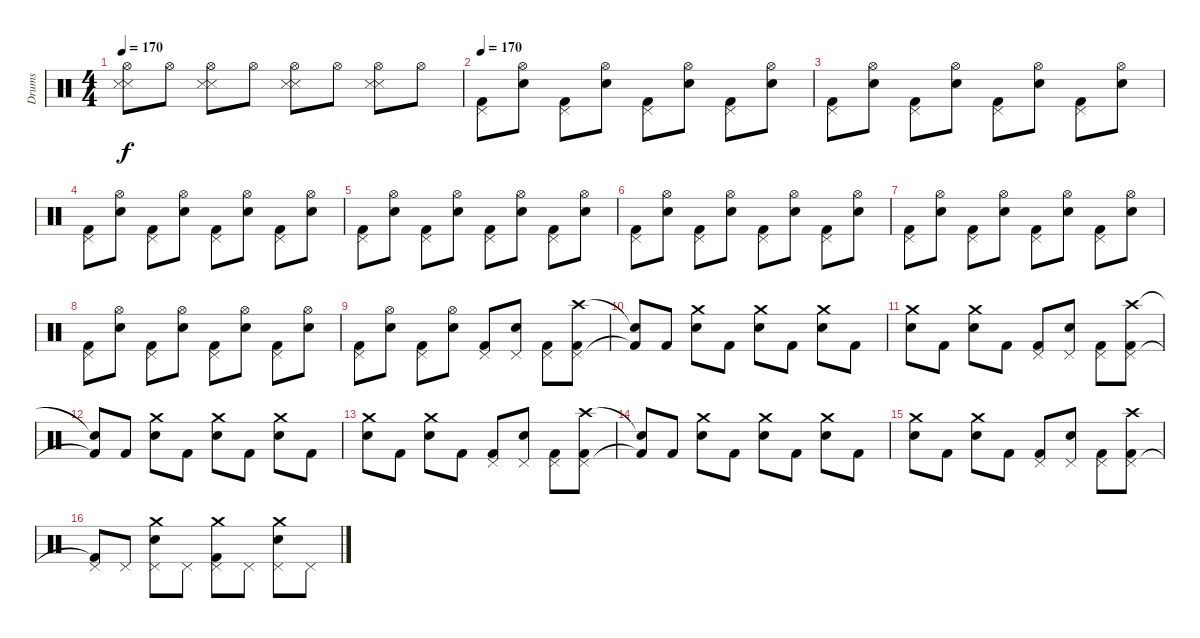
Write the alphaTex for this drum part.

\track ("Drums" "Drums") {instrument percussion}
\staff {score}
\articulation defaults
\ts (4 4)
\tempo 170
\clef neutral
\ks c
("Hi-Hat (open)" "Snare (side stick) 3" "Snare (side stick) 3").8{dy f} "Hi-Hat (open)".8 ("Hi-Hat (open)" "Snare (side stick) 3" "Snare (side stick) 3").8 "Hi-Hat (open)".8 ("Hi-Hat (open)" "Snare (side stick) 3" "Snare (side stick) 3").8 "Hi-Hat (open)".8 ("Hi-Hat (open)" "Snare (side stick) 3" "Snare (side stick) 3").8 "Hi-Hat (open)".8 |
\tempo 170
("Pedal Hi-Hat (hit)" "Kick (hit) 2").8 ("Hi-Hat (open)" "Electric Snare (hit)").8 ("Pedal Hi-Hat (hit)" "Kick (hit) 2").8 ("Hi-Hat (open)" "Electric Snare (hit)").8 ("Pedal Hi-Hat (hit)" "Kick (hit) 2").8 ("Hi-Hat (open)" "Electric Snare (hit)").8 ("Pedal Hi-Hat (hit)" "Kick (hit) 2").8 ("Hi-Hat (open)" "Electric Snare (hit)").8 |
("Pedal Hi-Hat (hit)" "Kick (hit) 2").8 ("Hi-Hat (open)" "Electric Snare (hit)").8 ("Pedal Hi-Hat (hit)" "Kick (hit) 2").8 ("Hi-Hat (open)" "Electric Snare (hit)").8 ("Pedal Hi-Hat (hit)" "Kick (hit) 2").8 ("Hi-Hat (open)" "Electric Snare (hit)").8 ("Pedal Hi-Hat (hit)" "Kick (hit) 2").8 ("Hi-Hat (open)" "Electric Snare (hit)").8 |
("Pedal Hi-Hat (hit)" "Kick (hit) 2").8 ("Hi-Hat (open)" "Electric Snare (hit)").8 ("Pedal Hi-Hat (hit)" "Kick (hit) 2").8 ("Hi-Hat (open)" "Electric Snare (hit)").8 ("Pedal Hi-Hat (hit)" "Kick (hit) 2").8 ("Hi-Hat (open)" "Electric Snare (hit)").8 ("Pedal Hi-Hat (hit)" "Kick (hit) 2").8 ("Hi-Hat (open)" "Electric Snare (hit)").8 |
("Pedal Hi-Hat (hit)" "Kick (hit) 2").8 ("Hi-Hat (open)" "Electric Snare (hit)").8 ("Pedal Hi-Hat (hit)" "Kick (hit) 2").8 ("Hi-Hat (open)" "Electric Snare (hit)").8 ("Pedal Hi-Hat (hit)" "Kick (hit) 2").8 ("Hi-Hat (open)" "Electric Snare (hit)").8 ("Pedal Hi-Hat (hit)" "Kick (hit) 2").8 ("Hi-Hat (open)" "Electric Snare (hit)").8 |
("Pedal Hi-Hat (hit)" "Kick (hit) 2").8 ("Hi-Hat (open)" "Electric Snare (hit)").8 ("Pedal Hi-Hat (hit)" "Kick (hit) 2").8 ("Hi-Hat (open)" "Electric Snare (hit)").8 ("Pedal Hi-Hat (hit)" "Kick (hit) 2").8 ("Hi-Hat (open)" "Electric Snare (hit)").8 ("Pedal Hi-Hat (hit)" "Kick (hit) 2").8 ("Hi-Hat (open)" "Electric Snare (hit)").8 |
("Pedal Hi-Hat (hit)" "Kick (hit) 2").8 ("Hi-Hat (open)" "Electric Snare (hit)").8 ("Pedal Hi-Hat (hit)" "Kick (hit) 2").8 ("Hi-Hat (open)" "Electric Snare (hit)").8 ("Pedal Hi-Hat (hit)" "Kick (hit) 2").8 ("Hi-Hat (open)" "Electric Snare (hit)").8 ("Pedal Hi-Hat (hit)" "Kick (hit) 2").8 ("Hi-Hat (open)" "Electric Snare (hit)").8 |
("Pedal Hi-Hat (hit)" "Kick (hit) 2").8 ("Hi-Hat (open)" "Electric Snare (hit)").8 ("Pedal Hi-Hat (hit)" "Kick (hit) 2").8 ("Hi-Hat (open)" "Electric Snare (hit)").8 ("Pedal Hi-Hat (hit)" "Kick (hit) 2").8 ("Hi-Hat (open)" "Electric Snare (hit)").8 ("Pedal Hi-Hat (hit)" "Kick (hit) 2").8 ("Hi-Hat (open)" "Electric Snare (hit)").8 |
("Pedal Hi-Hat (hit)" "Kick (hit) 2").8 ("Hi-Hat (open)" "Electric Snare (hit)").8 ("Pedal Hi-Hat (hit)" "Kick (hit) 2").8 ("Hi-Hat (open)" "Electric Snare (hit)").8 ("Pedal Hi-Hat (hit)" "Kick (hit) 2").8 ("Pedal Hi-Hat (hit)" "Electric Snare (hit)").8 ("Pedal Hi-Hat (hit)" "Kick (hit) 2").8 ("Crash high (hit)" "Pedal Hi-Hat (hit)" "Kick (hit) 2").8 |
("Snare (hit)"{t} "Kick (hit) 2"{t}).8 "Kick (hit) 2".8 ("Crash medium (hit)" "Snare (hit) 2").8 "Kick (hit) 2".8 ("Crash medium (hit)" "Snare (hit) 2").8 "Kick (hit) 2".8 ("Crash medium (hit)" "Snare (hit) 2").8 "Kick (hit) 2".8 |
("Crash medium (hit)" "Snare (hit) 2").8 "Kick (hit) 2".8 ("Crash medium (hit)" "Snare (hit) 2").8 "Kick (hit) 2".8 ("Pedal Hi-Hat (hit)" "Kick (hit) 2").8 ("Pedal Hi-Hat (hit)" "Electric Snare (hit)").8 ("Pedal Hi-Hat (hit)" "Kick (hit) 2").8 ("Crash high (hit)" "Pedal Hi-Hat (hit)" "Kick (hit) 2").8 |
("Snare (hit)"{t} "Kick (hit) 2"{t}).8 "Kick (hit) 2".8 ("Crash medium (hit)" "Snare (hit) 2").8 "Kick (hit) 2".8 ("Crash medium (hit)" "Snare (hit) 2").8 "Kick (hit) 2".8 ("Crash medium (hit)" "Snare (hit) 2").8 "Kick (hit) 2".8 |
("Crash medium (hit)" "Snare (hit) 2").8 "Kick (hit) 2".8 ("Crash medium (hit)" "Snare (hit) 2").8 "Kick (hit) 2".8 ("Pedal Hi-Hat (hit)" "Kick (hit) 2").8 ("Pedal Hi-Hat (hit)" "Electric Snare (hit)").8 ("Pedal Hi-Hat (hit)" "Kick (hit) 2").8 ("Crash high (hit)" "Pedal Hi-Hat (hit)" "Kick (hit) 2").8 |
("Snare (hit)"{t} "Kick (hit) 2"{t}).8 "Kick (hit) 2".8 ("Crash medium (hit)" "Snare (hit) 2").8 "Kick (hit) 2".8 ("Crash medium (hit)" "Snare (hit) 2").8 "Kick (hit) 2".8 ("Crash medium (hit)" "Snare (hit) 2").8 "Kick (hit) 2".8 |
("Crash medium (hit)" "Snare (hit) 2").8 "Kick (hit) 2".8 ("Crash medium (hit)" "Snare (hit) 2").8 "Kick (hit) 2".8 ("Pedal Hi-Hat (hit)" "Kick (hit) 2").8 ("Pedal Hi-Hat (hit)" "Electric Snare (hit)").8 ("Pedal Hi-Hat (hit)" "Kick (hit) 2").8 ("Crash high (hit)" "Pedal Hi-Hat (hit)" "Kick (hit) 2").8 |
("Pedal Hi-Hat (hit)" "Kick (hit) 2"{t}).8 "Pedal Hi-Hat (hit)".8 ("Crash medium (hit)" "Pedal Hi-Hat (hit)" "Snare (hit) 2").8 "Pedal Hi-Hat (hit)".8 ("Crash medium (hit)" "Pedal Hi-Hat (hit)" "Kick (hit) 2").8 "Pedal Hi-Hat (hit)".8 ("Crash medium (hit)" "Pedal Hi-Hat (hit)" "Snare (hit) 2").8 "Pedal Hi-Hat (hit)".8
